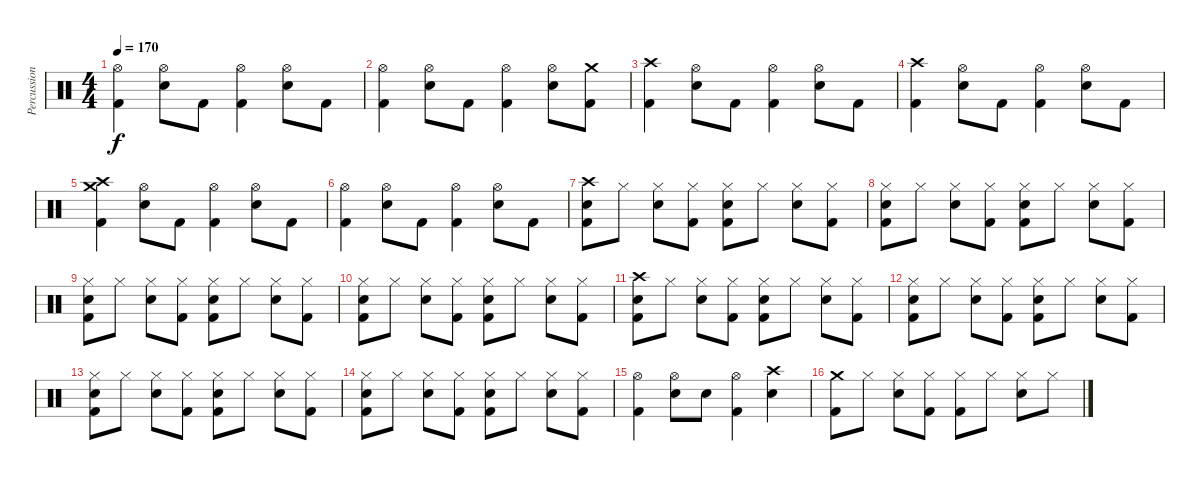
\track ("Percussion" "Percussion") {instrument percussion}
\staff {score}
\articulation defaults
\ts (4 4)
\tempo 170
\clef neutral
\ks c
("Hi-Hat (open)" "Kick (hit) 2").4{dy f} ("Hi-Hat (open)" "Snare (hit) 2").8 "Kick (hit) 2".8 ("Hi-Hat (open)" "Kick (hit) 2").4 ("Hi-Hat (open)" "Snare (hit) 2").8 "Kick (hit) 2".8 |
("Hi-Hat (open)" "Kick (hit) 2").4 ("Hi-Hat (open)" "Snare (hit) 2").8 "Kick (hit) 2".8 ("Hi-Hat (open)" "Kick (hit) 2").4 ("Hi-Hat (open)" "Snare (hit) 2").8 ("Crash medium (hit)" "Kick (hit) 2").8 |
("Crash high (hit)" "Kick (hit) 2").4 ("Hi-Hat (open)" "Snare (hit) 2").8 "Kick (hit) 2".8 ("Hi-Hat (open)" "Kick (hit) 2").4 ("Hi-Hat (open)" "Snare (hit) 2").8 "Kick (hit) 2".8 |
("Crash high (hit)" "Kick (hit) 2").4 ("Hi-Hat (open)" "Snare (hit) 2").8 "Kick (hit) 2".8 ("Hi-Hat (open)" "Kick (hit) 2").4 ("Hi-Hat (open)" "Snare (hit) 2").8 "Kick (hit) 2".8 |
("Crash medium (hit)" "Crash high (hit)" "Kick (hit) 2").4 ("Hi-Hat (open)" "Snare (hit) 2").8 "Kick (hit) 2".8 ("Hi-Hat (open)" "Kick (hit) 2").4 ("Hi-Hat (open)" "Snare (hit) 2").8 "Kick (hit) 2".8 |
("Hi-Hat (open)" "Kick (hit) 2").4 ("Hi-Hat (open)" "Snare (hit) 2").8 "Kick (hit) 2".8 ("Hi-Hat (open)" "Kick (hit) 2").4 ("Hi-Hat (open)" "Snare (hit) 2").8 "Kick (hit) 2".8 |
("Snare (hit) 2" "Crash high (hit)" "Kick (hit) 2").8 "Hi-Hat (closed)".8 ("Snare (hit) 2" "Hi-Hat (closed)").8 ("Hi-Hat (closed)" "Kick (hit) 2").8 ("Snare (hit) 2" "Hi-Hat (closed)" "Kick (hit) 2").8 "Hi-Hat (closed)".8 ("Snare (hit) 2" "Hi-Hat (closed)").8 ("Hi-Hat (closed)" "Kick (hit) 2").8 |
("Snare (hit) 2" "Hi-Hat (closed)" "Kick (hit) 2").8 "Hi-Hat (closed)".8 ("Snare (hit) 2" "Hi-Hat (closed)").8 ("Hi-Hat (closed)" "Kick (hit) 2").8 ("Snare (hit) 2" "Hi-Hat (closed)" "Kick (hit) 2").8 "Hi-Hat (closed)".8 ("Snare (hit) 2" "Hi-Hat (closed)").8 ("Hi-Hat (closed)" "Kick (hit) 2").8 |
("Snare (hit) 2" "Hi-Hat (closed)" "Kick (hit) 2").8 "Hi-Hat (closed)".8 ("Snare (hit) 2" "Hi-Hat (closed)").8 ("Hi-Hat (closed)" "Kick (hit) 2").8 ("Snare (hit) 2" "Hi-Hat (closed)" "Kick (hit) 2").8 "Hi-Hat (closed)".8 ("Snare (hit) 2" "Hi-Hat (closed)").8 ("Hi-Hat (closed)" "Kick (hit) 2").8 |
("Snare (hit) 2" "Hi-Hat (closed)" "Kick (hit) 2").8 "Hi-Hat (closed)".8 ("Snare (hit) 2" "Hi-Hat (closed)").8 ("Hi-Hat (closed)" "Kick (hit) 2").8 ("Snare (hit) 2" "Hi-Hat (closed)" "Kick (hit) 2").8 "Hi-Hat (closed)".8 ("Snare (hit) 2" "Hi-Hat (closed)").8 ("Hi-Hat (closed)" "Kick (hit) 2").8 |
("Snare (hit) 2" "Crash high (hit)" "Kick (hit) 2").8 "Hi-Hat (closed)".8 ("Snare (hit) 2" "Hi-Hat (closed)").8 ("Hi-Hat (closed)" "Kick (hit) 2").8 ("Snare (hit) 2" "Hi-Hat (closed)" "Kick (hit) 2").8 "Hi-Hat (closed)".8 ("Snare (hit) 2" "Hi-Hat (closed)").8 ("Hi-Hat (closed)" "Kick (hit) 2").8 |
("Snare (hit) 2" "Hi-Hat (closed)" "Kick (hit) 2").8 "Hi-Hat (closed)".8 ("Snare (hit) 2" "Hi-Hat (closed)").8 ("Hi-Hat (closed)" "Kick (hit) 2").8 ("Snare (hit) 2" "Hi-Hat (closed)" "Kick (hit) 2").8 "Hi-Hat (closed)".8 ("Snare (hit) 2" "Hi-Hat (closed)").8 ("Hi-Hat (closed)" "Kick (hit) 2").8 |
("Snare (hit) 2" "Hi-Hat (closed)" "Kick (hit) 2").8 "Hi-Hat (closed)".8 ("Snare (hit) 2" "Hi-Hat (closed)").8 ("Hi-Hat (closed)" "Kick (hit) 2").8 ("Snare (hit) 2" "Hi-Hat (closed)" "Kick (hit) 2").8 "Hi-Hat (closed)".8 ("Snare (hit) 2" "Hi-Hat (closed)").8 ("Hi-Hat (closed)" "Kick (hit) 2").8 |
("Snare (hit) 2" "Hi-Hat (closed)" "Kick (hit) 2").8 "Hi-Hat (closed)".8 ("Snare (hit) 2" "Hi-Hat (closed)").8 ("Hi-Hat (closed)" "Kick (hit) 2").8 ("Snare (hit) 2" "Hi-Hat (closed)" "Kick (hit) 2").8 "Hi-Hat (closed)".8 ("Snare (hit) 2" "Hi-Hat (closed)").8 ("Hi-Hat (closed)" "Kick (hit) 2").8 |
("Hi-Hat (open)" "Kick (hit) 2").4 ("Hi-Hat (open)" "Snare (hit) 2").8 "Snare (hit) 2".8 ("Hi-Hat (open)" "Kick (hit) 2").4 ("Crash high (hit)" "Snare (hit) 2").4 |
("Crash medium (hit)" "Kick (hit) 2").8 "Hi-Hat (closed)".8 ("Hi-Hat (closed)" "Snare (hit) 2").8 ("Hi-Hat (closed)" "Kick (hit) 2").8 ("Hi-Hat (closed)" "Kick (hit) 2").8 "Hi-Hat (closed)".8 ("Hi-Hat (closed)" "Snare (hit) 2").8 "Hi-Hat (closed)".8
